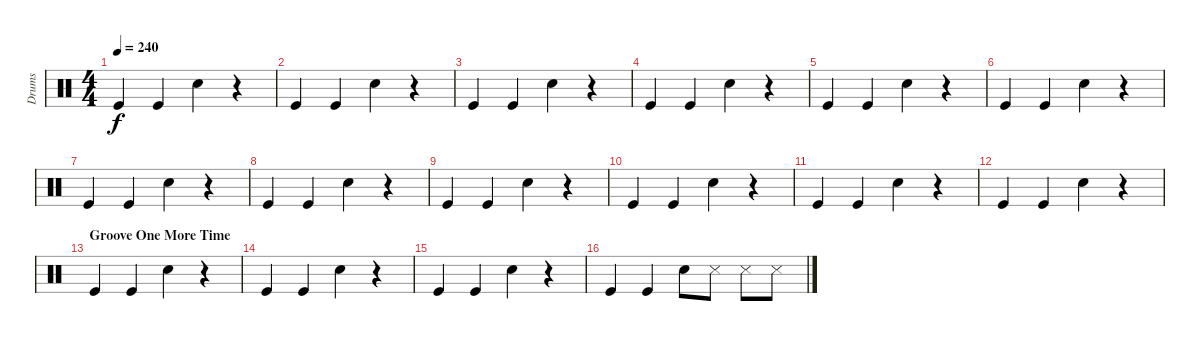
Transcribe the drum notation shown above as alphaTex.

\track ("Drums" "Drums") {instrument percussion}
\staff {score}
\articulation defaults
\ts (4 4)
\tempo 240
\clef neutral
\ks c "Kick (hit)".4{dy f} "Kick (hit)".4 "Snare (hit) 2".4
r.4 |
"Kick (hit)".4 "Kick (hit)".4 "Snare (hit) 2".4 r.4 |
"Kick (hit)".4 "Kick (hit)".4 "Snare (hit) 2".4 r.4 |
"Kick (hit)".4 "Kick (hit)".4 "Snare (hit) 2".4 r.4 |
"Kick (hit)".4 "Kick (hit)".4 "Snare (hit) 2".4 r.4 |
"Kick (hit)".4 "Kick (hit)".4 "Snare (hit) 2".4 r.4 |
"Kick (hit)".4 "Kick (hit)".4 "Snare (hit) 2".4 r.4 |
"Kick (hit)".4 "Kick (hit)".4 "Snare (hit) 2".4 r.4 |
"Kick (hit)".4 "Kick (hit)".4 "Snare (hit) 2".4 r.4 |
"Kick (hit)".4 "Kick (hit)".4 "Snare (hit) 2".4 r.4 |
"Kick (hit)".4 "Kick (hit)".4 "Snare (hit) 2".4 r.4 |
"Kick (hit)".4 "Kick (hit)".4 "Snare (hit) 2".4 r.4 |
\section ("" "Groove One More Time")
"Kick (hit)".4 "Kick (hit)".4 "Snare (hit) 2".4 r.4 |
"Kick (hit)".4 "Kick (hit)".4 "Snare (hit) 2".4 r.4 |
"Kick (hit)".4 "Kick (hit)".4 "Snare (hit) 2".4 r.4 |
"Kick (hit)".4 "Kick (hit)".4 "Snare (hit) 2".8 "Snare (side stick) 3".8 "Snare (side stick) 3".8 "Snare (side stick) 3".8
